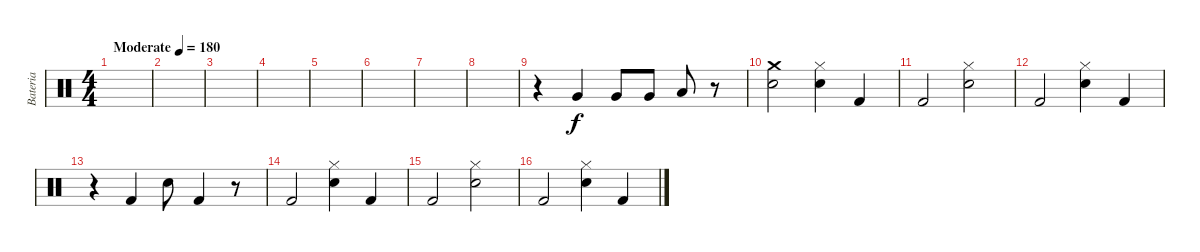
\track ("Bateria" "Bateria") {instrument percussion}
\staff {score}
\articulation defaults
\ts (4 4)
\tempo (180 "Moderate")
\clef neutral
\ks c
|
|
|
|
|
|
|
|
r.4 "Very Low Tom (hit)".4 "Very Low Tom (hit)".8 "Very Low Tom (hit)".8 "Low Floor Tom (hit)".8 r.8 |
("Crash medium (hit)" "Electric Snare (hit)").2 ("Electric Snare (hit)" "Hi-Hat (closed)").4 "Kick (hit) 2".4 |
"Kick (hit) 2".2 ("Electric Snare (hit)" "Hi-Hat (closed)").2 |
"Kick (hit) 2".2 ("Electric Snare (hit)" "Hi-Hat (closed)").4 "Kick (hit) 2".4 |
r.4 "Kick (hit) 2".4 "Electric Snare (hit)".8 "Kick (hit) 2".4 r.8 |
"Kick (hit) 2".2 ("Electric Snare (hit)" "Hi-Hat (closed)").4 "Kick (hit) 2".4 |
"Kick (hit) 2".2 ("Electric Snare (hit)" "Hi-Hat (closed)").2 |
"Kick (hit) 2".2 ("Electric Snare (hit)" "Hi-Hat (closed)").4 "Kick (hit) 2".4
